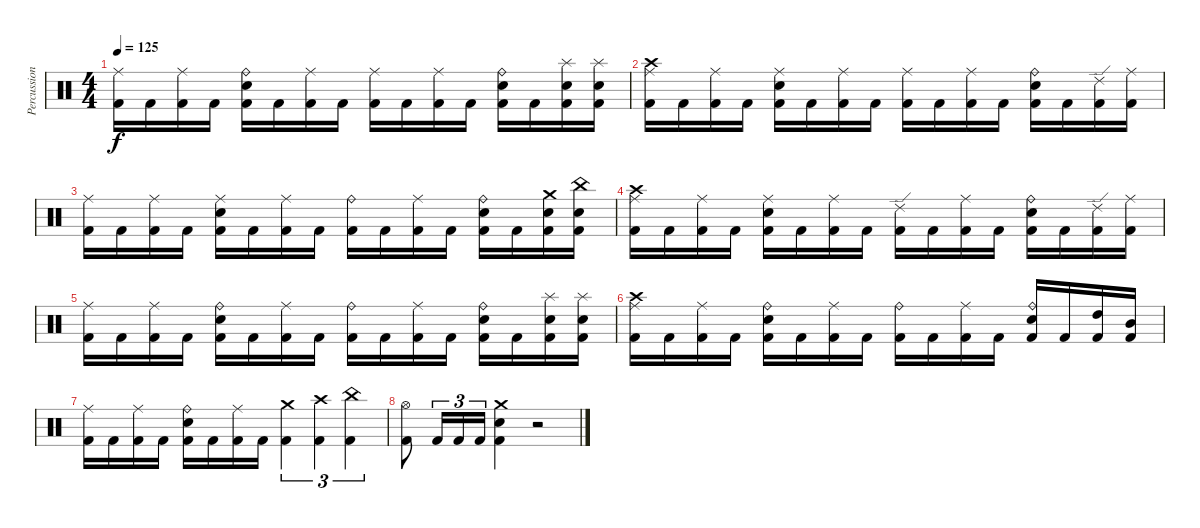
\track ("Percussions" "Percussion") {instrument percussion}
\staff {score}
\articulation defaults
\ts (4 4)
\tempo 125
\clef neutral
\ks c
("Ride (middle)" "Kick (hit) 2").16{dy f} "Kick (hit) 2".16 ("Ride (middle)" "Kick (hit) 2").16 "Kick (hit) 2".16 ("Ride (bell)" "Electric Snare (hit)" "Kick (hit) 2").16 "Kick (hit) 2".16 ("Ride (middle)" "Kick (hit) 2").16 "Kick (hit) 2".16 ("Ride (middle)" "Kick (hit) 2").16 "Kick (hit) 2".16 ("Ride (middle)" "Kick (hit) 2").16 "Kick (hit) 2".16 ("Ride (bell)" "Electric Snare (hit)" "Kick (hit) 2").16 "Kick (hit) 2".16 ("Splash (hit)" "Electric Snare (hit)" "Kick (hit) 2").16 ("Splash (hit)" "Electric Snare (hit)" "Kick (hit) 2").16 |
("Crash high (hit)" "Ride (middle)" "Kick (hit) 2").16 "Kick (hit) 2".16 ("Ride (middle)" "Kick (hit) 2").16 "Kick (hit) 2".16 ("Ride (middle)" "Electric Snare (hit)" "Kick (hit) 2").16 "Kick (hit) 2".16 ("Ride (middle)" "Kick (hit) 2").16 "Kick (hit) 2".16 ("Ride (middle)" "Kick (hit) 2").16 "Kick (hit) 2".16 ("Ride (middle)" "Kick (hit) 2").16 "Kick (hit) 2".16 ("Ride (bell)" "Electric Snare (hit)" "Kick (hit) 2").16 "Kick (hit) 2".16 ("Ride (edge) 2" "Kick (hit) 2").16 ("Ride (middle)" "Kick (hit) 2").16 |
("Ride (middle)" "Kick (hit) 2").16 "Kick (hit) 2".16 ("Ride (middle)" "Kick (hit) 2").16 "Kick (hit) 2".16 ("Ride (middle)" "Electric Snare (hit)" "Kick (hit) 2").16 "Kick (hit) 2".16 ("Ride (middle)" "Kick (hit) 2").16 "Kick (hit) 2".16 ("Ride (bell)" "Kick (hit) 2").16 "Kick (hit) 2".16 ("Ride (middle)" "Kick (hit) 2").16 "Kick (hit) 2".16 ("Ride (bell)" "Electric Snare (hit)" "Kick (hit) 2").16 "Kick (hit) 2".16 ("Crash medium (hit)" "Electric Snare (hit)" "Kick (hit) 2").16 ("China (hit)" "Electric Snare (hit)" "Kick (hit) 2").16 |
("Crash high (hit)" "Ride (middle)" "Kick (hit) 2").16 "Kick (hit) 2".16 ("Ride (middle)" "Kick (hit) 2").16 "Kick (hit) 2".16 ("Ride (middle)" "Electric Snare (hit)" "Kick (hit) 2").16 "Kick (hit) 2".16 ("Ride (middle)" "Kick (hit) 2").16 "Kick (hit) 2".16 ("Ride (edge) 2" "Kick (hit) 2").16 "Kick (hit) 2".16 ("Ride (middle)" "Kick (hit) 2").16 "Kick (hit) 2".16 ("Ride (bell)" "Electric Snare (hit)" "Kick (hit) 2").16 "Kick (hit) 2".16 ("Ride (edge) 2" "Kick (hit) 2").16 ("Ride (middle)" "Kick (hit) 2").16 |
("Ride (middle)" "Kick (hit) 2").16 "Kick (hit) 2".16 ("Ride (middle)" "Kick (hit) 2").16 "Kick (hit) 2".16 ("Ride (bell)" "Electric Snare (hit)" "Kick (hit) 2").16 "Kick (hit) 2".16 ("Ride (middle)" "Kick (hit) 2").16 "Kick (hit) 2".16 ("Ride (bell)" "Kick (hit) 2").16 "Kick (hit) 2".16 ("Ride (middle)" "Kick (hit) 2").16 "Kick (hit) 2".16 ("Ride (bell)" "Electric Snare (hit)" "Kick (hit) 2").16 "Kick (hit) 2".16 ("Splash (hit)" "Electric Snare (hit)" "Kick (hit) 2").16 ("Splash (hit)" "Electric Snare (hit)" "Kick (hit) 2").16 |
("Crash high (hit)" "Ride (middle)" "Kick (hit) 2").16 "Kick (hit) 2".16 ("Ride (middle)" "Kick (hit) 2").16 "Kick (hit) 2".16 ("Ride (bell)" "Electric Snare (hit)" "Kick (hit) 2").16 "Kick (hit) 2".16 ("Ride (middle)" "Kick (hit) 2").16 "Kick (hit) 2".16 ("Ride (bell)" "Kick (hit) 2").16 "Kick (hit) 2".16 ("Ride (middle)" "Kick (hit) 2").16 "Kick (hit) 2".16 ("Ride (bell)" "Electric Snare (hit)" "Kick (hit) 2").16 "Kick (hit) 2".16 ("High Tom (hit)" "Kick (hit) 2").16 ("Mid Tom (hit)" "Kick (hit) 2").16 |
("Ride (middle)" "Kick (hit) 2").16 "Kick (hit) 2".16 ("Ride (middle)" "Kick (hit) 2").16 "Kick (hit) 2".16 ("Ride (bell)" "Electric Snare (hit)" "Kick (hit) 2").16 "Kick (hit) 2".16 ("Ride (middle)" "Kick (hit) 2").16 "Kick (hit) 2".16 ("Crash medium (hit)" "Kick (hit) 2").4{tu (3 2)} ("Crash high (hit)" "Kick (hit) 2").4{tu (3 2)} ("China (hit)" "Kick (hit) 2").4{tu (3 2)} |
("Hi-Hat (open)" "Kick (hit) 2").8 "Kick (hit) 2".16{tu (3 2)} "Kick (hit) 2".16{tu (3 2)} "Kick (hit) 2".16{tu (3 2)} ("Crash medium (hit)" "Electric Snare (hit)" "Kick (hit) 2").4 r.2
